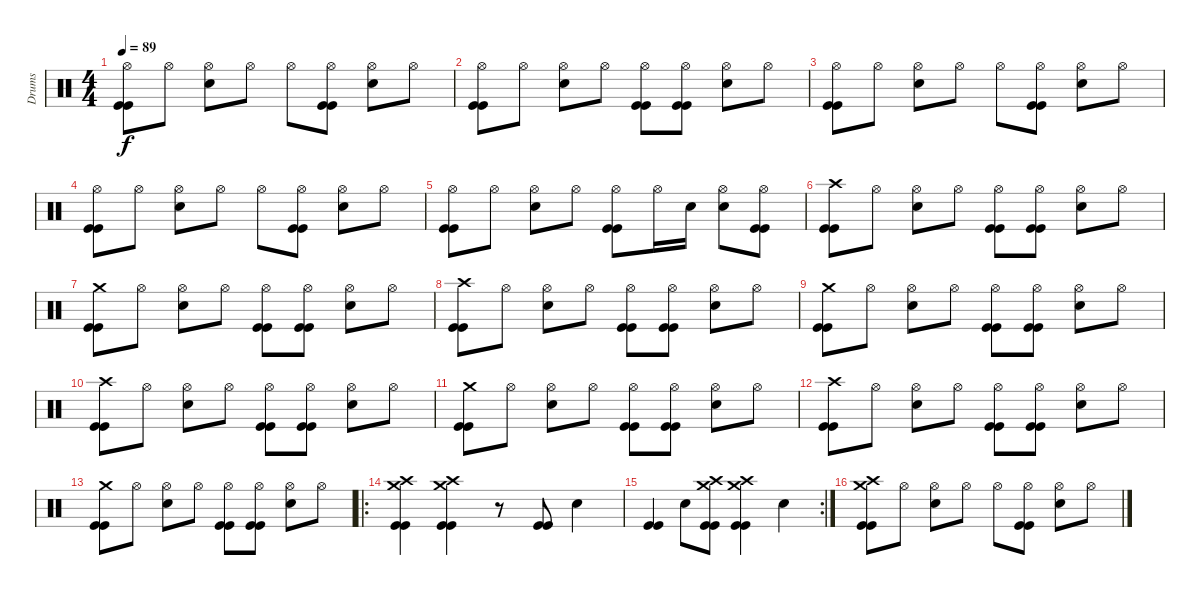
\track ("Drums" "Drums") {instrument percussion}
\staff {score}
\articulation defaults
\ts (4 4)
\tempo 89
\clef neutral
\ks c
("Hi-Hat (open)" "Kick (hit)" "Kick (hit)").8{dy f} "Hi-Hat (open)".8 ("Hi-Hat (open)" "Electric Snare (hit)").8 "Hi-Hat (open)".8 "Hi-Hat (open)".8 ("Hi-Hat (open)" "Kick (hit)" "Kick (hit)").8 ("Hi-Hat (open)" "Electric Snare (hit)").8 "Hi-Hat (open)".8 |
("Hi-Hat (open)" "Kick (hit)" "Kick (hit)").8 "Hi-Hat (open)".8 ("Hi-Hat (open)" "Electric Snare (hit)").8 "Hi-Hat (open)".8 ("Hi-Hat (open)" "Kick (hit)" "Kick (hit)").8 ("Hi-Hat (open)" "Kick (hit)" "Kick (hit)").8 ("Hi-Hat (open)" "Electric Snare (hit)").8 "Hi-Hat (open)".8 |
("Hi-Hat (open)" "Kick (hit)" "Kick (hit)").8 "Hi-Hat (open)".8 ("Hi-Hat (open)" "Electric Snare (hit)").8 "Hi-Hat (open)".8 "Hi-Hat (open)".8 ("Hi-Hat (open)" "Kick (hit)" "Kick (hit)").8 ("Hi-Hat (open)" "Electric Snare (hit)").8 "Hi-Hat (open)".8 |
("Hi-Hat (open)" "Kick (hit)" "Kick (hit)").8 "Hi-Hat (open)".8 ("Hi-Hat (open)" "Electric Snare (hit)").8 "Hi-Hat (open)".8 "Hi-Hat (open)".8 ("Hi-Hat (open)" "Kick (hit)" "Kick (hit)").8 ("Hi-Hat (open)" "Electric Snare (hit)").8 "Hi-Hat (open)".8 |
("Hi-Hat (open)" "Kick (hit)" "Kick (hit)").8 "Hi-Hat (open)".8 ("Hi-Hat (open)" "Electric Snare (hit)").8 "Hi-Hat (open)".8 ("Hi-Hat (open)" "Kick (hit)" "Kick (hit)").8 "Hi-Hat (open)".16 "Electric Snare (hit)".16 ("Hi-Hat (open)" "Electric Snare (hit)").8 ("Hi-Hat (open)" "Kick (hit)" "Kick (hit)").8 |
("Crash high (hit)" "Kick (hit)" "Kick (hit)").8 "Hi-Hat (open)".8 ("Hi-Hat (open)" "Electric Snare (hit)").8 "Hi-Hat (open)".8 ("Hi-Hat (open)" "Kick (hit)" "Kick (hit)").8 ("Hi-Hat (open)" "Kick (hit)" "Kick (hit)").8 ("Hi-Hat (open)" "Electric Snare (hit)").8 "Hi-Hat (open)".8 |
("Crash medium (hit)" "Kick (hit)" "Kick (hit)").8 "Hi-Hat (open)".8 ("Hi-Hat (open)" "Electric Snare (hit)").8 "Hi-Hat (open)".8 ("Hi-Hat (open)" "Kick (hit)" "Kick (hit)").8 ("Hi-Hat (open)" "Kick (hit)" "Kick (hit)").8 ("Hi-Hat (open)" "Electric Snare (hit)").8 "Hi-Hat (open)".8 |
("Crash high (hit)" "Kick (hit)" "Kick (hit)").8 "Hi-Hat (open)".8 ("Hi-Hat (open)" "Electric Snare (hit)").8 "Hi-Hat (open)".8 ("Hi-Hat (open)" "Kick (hit)" "Kick (hit)").8 ("Hi-Hat (open)" "Kick (hit)" "Kick (hit)").8 ("Hi-Hat (open)" "Electric Snare (hit)").8 "Hi-Hat (open)".8 |
("Crash medium (hit)" "Kick (hit)" "Kick (hit)").8 "Hi-Hat (open)".8 ("Hi-Hat (open)" "Electric Snare (hit)").8 "Hi-Hat (open)".8 ("Hi-Hat (open)" "Kick (hit)" "Kick (hit)").8 ("Hi-Hat (open)" "Kick (hit)" "Kick (hit)").8 ("Hi-Hat (open)" "Electric Snare (hit)").8 "Hi-Hat (open)".8 |
("Crash high (hit)" "Kick (hit)" "Kick (hit)").8 "Hi-Hat (open)".8 ("Hi-Hat (open)" "Electric Snare (hit)").8 "Hi-Hat (open)".8 ("Hi-Hat (open)" "Kick (hit)" "Kick (hit)").8 ("Hi-Hat (open)" "Kick (hit)" "Kick (hit)").8 ("Hi-Hat (open)" "Electric Snare (hit)").8 "Hi-Hat (open)".8 |
("Crash medium (hit)" "Kick (hit)" "Kick (hit)").8 "Hi-Hat (open)".8 ("Hi-Hat (open)" "Electric Snare (hit)").8 "Hi-Hat (open)".8 ("Hi-Hat (open)" "Kick (hit)" "Kick (hit)").8 ("Hi-Hat (open)" "Kick (hit)" "Kick (hit)").8 ("Hi-Hat (open)" "Electric Snare (hit)").8 "Hi-Hat (open)".8 |
("Crash high (hit)" "Kick (hit)" "Kick (hit)").8 "Hi-Hat (open)".8 ("Hi-Hat (open)" "Electric Snare (hit)").8 "Hi-Hat (open)".8 ("Hi-Hat (open)" "Kick (hit)" "Kick (hit)").8 ("Hi-Hat (open)" "Kick (hit)" "Kick (hit)").8 ("Hi-Hat (open)" "Electric Snare (hit)").8 "Hi-Hat (open)".8 |
("Crash medium (hit)" "Kick (hit)" "Kick (hit)").8 "Hi-Hat (open)".8 ("Hi-Hat (open)" "Electric Snare (hit)").8 "Hi-Hat (open)".8 ("Hi-Hat (open)" "Kick (hit)" "Kick (hit)").8 ("Hi-Hat (open)" "Kick (hit)" "Kick (hit)").8 ("Hi-Hat (open)" "Electric Snare (hit)").8 "Hi-Hat (open)".8 |
\ro
("Crash high (hit)" "Crash medium (hit)" "Kick (hit)" "Kick (hit)").4 ("Crash high (hit)" "Crash medium (hit)" "Kick (hit)" "Kick (hit)").4 r.8 ("Kick (hit)" "Kick (hit)").8 "Electric Snare (hit)".4 |
\rc 2
("Kick (hit)" "Kick (hit)").4 "Electric Snare (hit)".8 ("Crash high (hit)" "Crash medium (hit)" "Kick (hit)" "Kick (hit)").8 ("Crash high (hit)" "Crash medium (hit)" "Kick (hit)" "Kick (hit)").4 "Electric Snare (hit)".4 |
("Crash medium (hit)" "Crash high (hit)" "Kick (hit)" "Kick (hit)").8 "Hi-Hat (open)".8 ("Hi-Hat (open)" "Electric Snare (hit)").8 "Hi-Hat (open)".8 "Hi-Hat (open)".8 ("Hi-Hat (open)" "Kick (hit)" "Kick (hit)").8 ("Hi-Hat (open)" "Electric Snare (hit)").8 "Hi-Hat (open)".8
